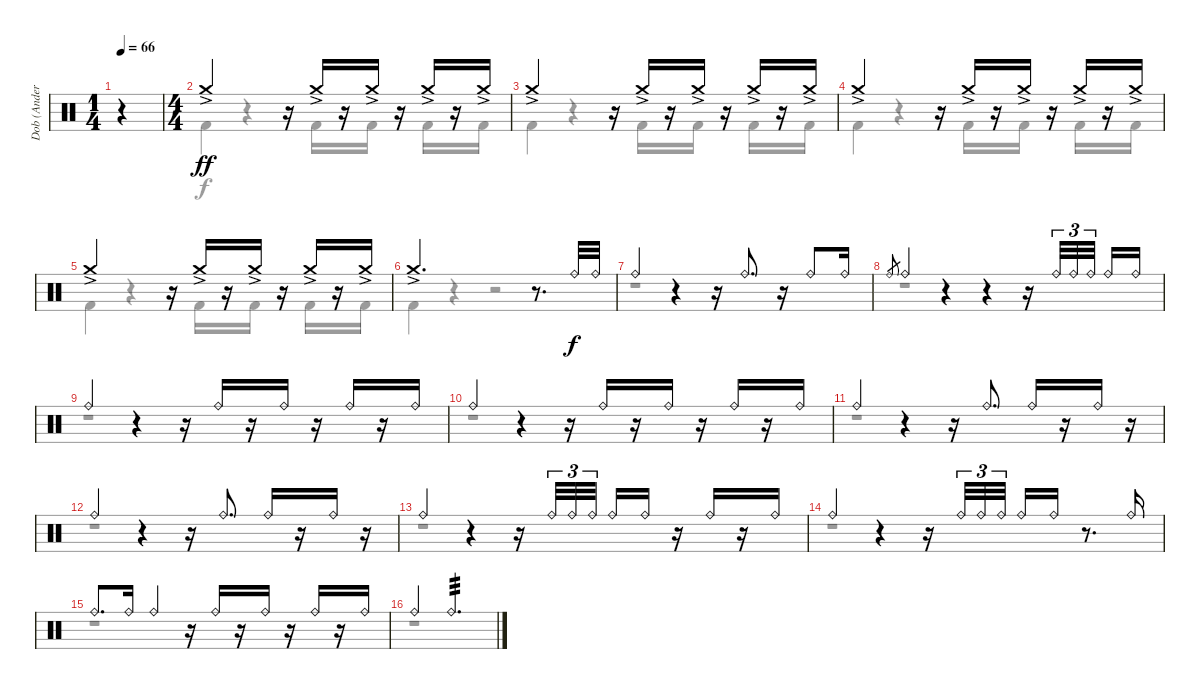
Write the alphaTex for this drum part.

\track ("Dob (Anders Johansson)" "Dob (Ander") {instrument percussion}
\staff {score}
\articulation defaults
\voice
\ts (1 4)
\tempo 66
\clef neutral
\ks c
r.4{dy ff} |
\ts (4 4)
"Crash medium (hit)"{ac}.2 r.16 "Crash medium (hit)"{ac}.16 r.16 "Crash medium (hit)"{ac}.16 r.16 "Crash medium (hit)"{ac}.16 r.16 "Crash medium (hit)"{ac}.16 |
"Crash medium (hit)"{ac}.2 r.16 "Crash medium (hit)"{ac}.16 r.16 "Crash medium (hit)"{ac}.16 r.16 "Crash medium (hit)"{ac}.16 r.16 "Crash medium (hit)"{ac}.16 |
"Crash medium (hit)"{ac}.2 r.16 "Crash medium (hit)"{ac}.16 r.16 "Crash medium (hit)"{ac}.16 r.16 "Crash medium (hit)"{ac}.16 r.16 "Crash medium (hit)"{ac}.16 |
"Crash medium (hit)"{ac}.2 r.16 "Crash medium (hit)"{ac}.16 r.16 "Crash medium (hit)"{ac}.16 r.16 "Crash medium (hit)"{ac}.16 r.16 "Crash medium (hit)"{ac}.16 |
"Crash medium (hit)"{ac}.2{d} r.8{d} "Ride (bell)".32{dy f} "Ride (bell)".32 |
"Ride (bell)".4 r.4 r.16 "Ride (bell)".8{d} r.16 "Ride (bell)".8 "Ride (bell)".16 |
"Ride (bell)".8{gr} "Ride (bell)".4 r.4 r.4 r.16 "Ride (bell)".32{tu (3 2)} "Ride (bell)".32{tu (3 2)} "Ride (bell)".32{tu (3 2) beam splitsecondary} "Ride (bell)".16 "Ride (bell)".16 |
"Ride (bell)".4 r.4 r.16 "Ride (bell)".16 r.16 "Ride (bell)".16 r.16 "Ride (bell)".16 r.16 "Ride (bell)".16 |
"Ride (bell)".4 r.4 r.16 "Ride (bell)".16 r.16 "Ride (bell)".16 r.16 "Ride (bell)".16 r.16 "Ride (bell)".16 |
"Ride (bell)".4 r.4 r.16 "Ride (bell)".8{d} "Ride (bell)".16 r.16 "Ride (bell)".16 r.16 |
"Ride (bell)".4 r.4 r.16 "Ride (bell)".8{d} "Ride (bell)".16 r.16 "Ride (bell)".16 r.16 |
"Ride (bell)".4 r.4 r.16 "Ride (bell)".32{tu (3 2)} "Ride (bell)".32{tu (3 2)} "Ride (bell)".32{tu (3 2) beam splitsecondary} "Ride (bell)".16 "Ride (bell)".16 r.16 "Ride (bell)".16 r.16 "Ride (bell)".16 |
"Ride (bell)".4 r.4 r.16 "Ride (bell)".32{tu (3 2)} "Ride (bell)".32{tu (3 2)} "Ride (bell)".32{tu (3 2) beam splitsecondary} "Ride (bell)".16 "Ride (bell)".16 r.8{d} "Ride (bell)".16 |
"Ride (bell)".8{d} "Ride (bell)".16 "Ride (bell)".4 r.16 "Ride (bell)".16 r.16 "Ride (bell)".16 r.16 "Ride (bell)".16 r.16 "Ride (bell)".16 |
"Ride (bell)".4 "Ride (bell)".2{d tp 3}
\voice
\clef neutral
\ottava regular
\simile none
\ks c
r.4{dy f} |
"Kick (hit) 2".4 r.4 r.16 "Kick (hit) 2".16 r.16 "Kick (hit) 2".16 r.16 "Kick (hit) 2".16 r.16 "Kick (hit) 2".16 |
"Kick (hit) 2".4 r.4 r.16 "Kick (hit) 2".16 r.16 "Kick (hit) 2".16 r.16 "Kick (hit) 2".16 r.16 "Kick (hit) 2".16 |
"Kick (hit) 2".4 r.4 r.16 "Kick (hit) 2".16 r.16 "Kick (hit) 2".16 r.16 "Kick (hit) 2".16 r.16 "Kick (hit) 2".16 |
"Kick (hit) 2".4 r.4 r.16 "Kick (hit) 2".16 r.16 "Kick (hit) 2".16 r.16 "Kick (hit) 2".16 r.16 "Kick (hit) 2".16 |
"Kick (hit) 2".4 r.4 r.2 |
r.1 |
r.1 |
r.1 |
r.1 |
r.1 |
r.1 |
r.1 |
r.1 |
r.1 |
r.1
